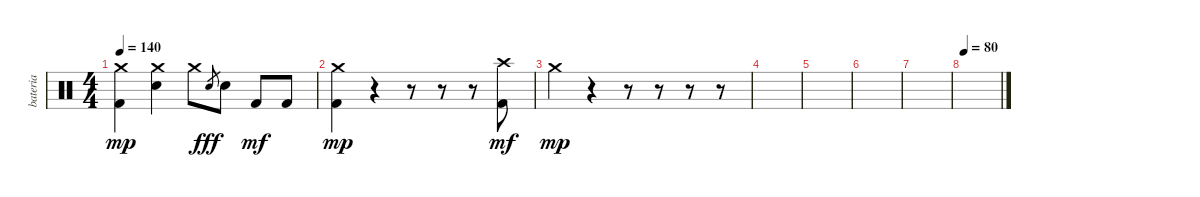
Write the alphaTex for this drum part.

\track ("bateria" "bateria") {instrument percussion}
\staff {score}
\articulation defaults
\ts (4 4)
\tempo 140
\clef neutral
\ks c
("Crash medium (hit)" "Kick (hit) 2").4{dy mp} ("Crash medium (hit)" "Snare (hit) 2").4 "Crash medium (hit)".8 "Snare (hit) 2".8{gr dy fff} "Snare (hit) 2".8 "Kick (hit) 2".8{dy mf} "Kick (hit) 2".8 |
("Crash medium (hit)" "Kick (hit) 2").4{dy mp} r.4 r.8 r.8 r.8 ("Crash high (hit)" "Kick (hit) 2").8{dy mf} |
"Crash medium (hit)".4{dy mp} r.4 r.8 r.8 r.8 r.8 |
|
|
|
|
\tempo 80
